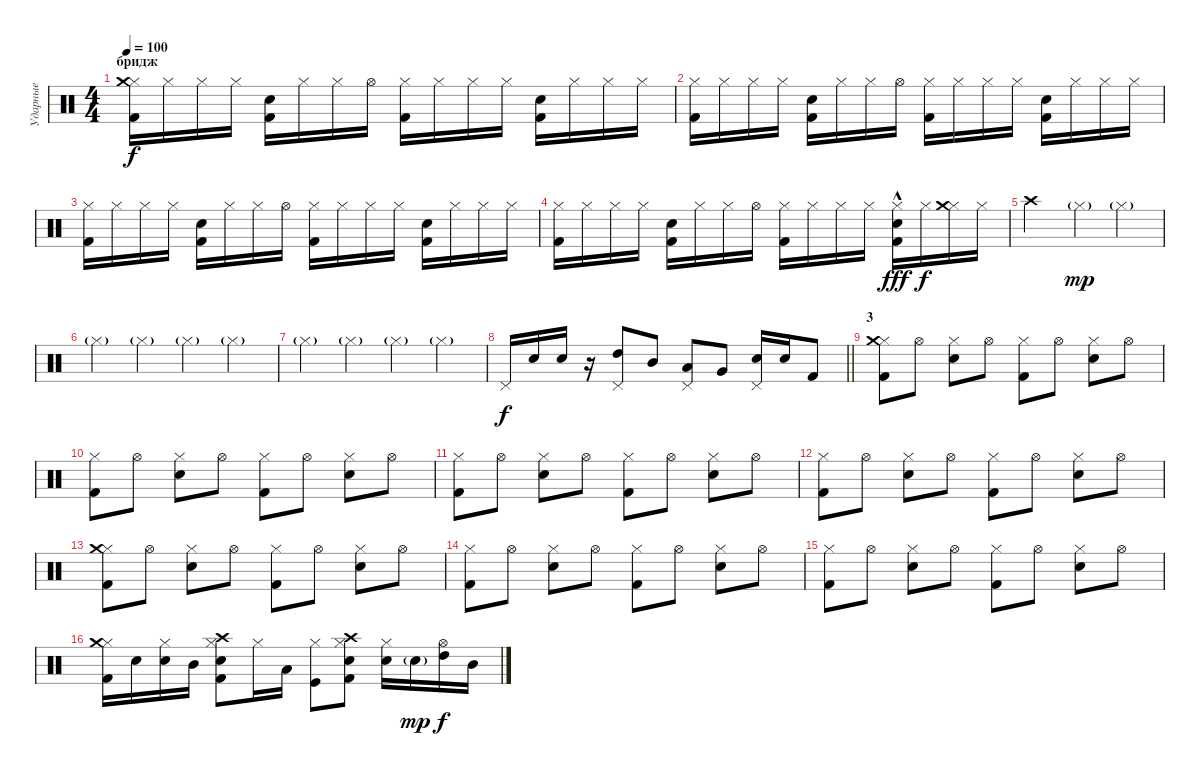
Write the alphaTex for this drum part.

\track ("Ударные" "Ударные") {instrument percussion}
\staff {score}
\articulation defaults
\ts (4 4)
\section ("" "бридж")
\tempo 100
\clef neutral
\ks c
("Kick (hit) 2" "Hi-Hat (closed)" "Crash medium (hit)").16{dy f} "Hi-Hat (closed)".16 "Hi-Hat (closed)".16 "Hi-Hat (closed)".16 ("Kick (hit) 2" "Snare (hit) 2").16 "Hi-Hat (closed)".16 "Hi-Hat (closed)".16 "Hi-Hat (open)".16 ("Kick (hit) 2" "Hi-Hat (closed)").16 "Hi-Hat (closed)".16 "Hi-Hat (closed)".16 "Hi-Hat (closed)".16 ("Kick (hit) 2" "Snare (hit) 2").16 "Hi-Hat (closed)".16 "Hi-Hat (closed)".16 "Hi-Hat (closed)".16 |
("Kick (hit) 2" "Hi-Hat (closed)").16 "Hi-Hat (closed)".16 "Hi-Hat (closed)".16 "Hi-Hat (closed)".16 ("Kick (hit) 2" "Snare (hit) 2").16 "Hi-Hat (closed)".16 "Hi-Hat (closed)".16 "Hi-Hat (open)".16 ("Kick (hit) 2" "Hi-Hat (closed)").16 "Hi-Hat (closed)".16 "Hi-Hat (closed)".16 "Hi-Hat (closed)".16 ("Kick (hit) 2" "Snare (hit) 2").16 "Hi-Hat (closed)".16 "Hi-Hat (closed)".16 "Hi-Hat (closed)".16 |
("Kick (hit) 2" "Hi-Hat (closed)").16 "Hi-Hat (closed)".16 "Hi-Hat (closed)".16 "Hi-Hat (closed)".16 ("Kick (hit) 2" "Snare (hit) 2").16 "Hi-Hat (closed)".16 "Hi-Hat (closed)".16 "Hi-Hat (open)".16 ("Kick (hit) 2" "Hi-Hat (closed)").16 "Hi-Hat (closed)".16 "Hi-Hat (closed)".16 "Hi-Hat (closed)".16 ("Kick (hit) 2" "Snare (hit) 2").16 "Hi-Hat (closed)".16 "Hi-Hat (closed)".16 "Hi-Hat (closed)".16 |
("Kick (hit) 2" "Hi-Hat (closed)").16 "Hi-Hat (closed)".16 "Hi-Hat (closed)".16 "Hi-Hat (closed)".16 ("Kick (hit) 2" "Snare (hit) 2").16 "Hi-Hat (closed)".16 "Hi-Hat (closed)".16 "Hi-Hat (open)".16 ("Kick (hit) 2" "Hi-Hat (closed)").16 "Hi-Hat (closed)".16 "Hi-Hat (closed)".16 "Hi-Hat (closed)".16 ("Kick (hit) 2" "Snare (hit) 2" "Hi-Hat (closed)"{hac}).16{dy fff} "Hi-Hat (closed)".16{dy f} ("Hi-Hat (closed)" "Crash medium (hit)").16 "Hi-Hat (closed)".16 |
"Crash high (hit)".2 "Hi-Hat (closed)"{g}.4{dy mp} "Hi-Hat (closed)"{g}.4 |
"Hi-Hat (closed)"{g}.4 "Hi-Hat (closed)"{g}.4 "Hi-Hat (closed)"{g}.4 "Hi-Hat (closed)"{g}.4 |
"Hi-Hat (closed)"{g}.4 "Hi-Hat (closed)"{g}.4 "Hi-Hat (closed)"{g}.4 "Hi-Hat (closed)"{g}.4 |
\barLineRight lightlight "Pedal Hi-Hat (hit)".16{dy f} "Snare (hit) 2".16 "Snare (hit) 2".16
r.16 ("Pedal Hi-Hat (hit)" "High Tom (hit)").8 "Mid Tom (hit)".8 ("Pedal Hi-Hat (hit)" "Low Tom (hit)").8 "Very Low Tom (hit)".8 ("Snare (hit) 2" "Pedal Hi-Hat (hit)").16 "Snare (hit) 2".16 "Kick (hit) 2".8 |
\section ("" "3")
("Kick (hit) 2" "Hi-Hat (closed)" "Crash medium (hit)").8 "Hi-Hat (open)".8 ("Snare (hit) 2" "Hi-Hat (closed)").8 "Hi-Hat (open)".8 ("Kick (hit) 2" "Hi-Hat (closed)").8 "Hi-Hat (open)".8 ("Snare (hit) 2" "Hi-Hat (closed)").8 "Hi-Hat (open)".8 |
("Kick (hit) 2" "Hi-Hat (closed)").8 "Hi-Hat (open)".8 ("Snare (hit) 2" "Hi-Hat (closed)").8 "Hi-Hat (open)".8 ("Kick (hit) 2" "Hi-Hat (closed)").8 "Hi-Hat (open)".8 ("Snare (hit) 2" "Hi-Hat (closed)").8 "Hi-Hat (open)".8 |
("Kick (hit) 2" "Hi-Hat (closed)").8 "Hi-Hat (open)".8 ("Snare (hit) 2" "Hi-Hat (closed)").8 "Hi-Hat (open)".8 ("Kick (hit) 2" "Hi-Hat (closed)").8 "Hi-Hat (open)".8 ("Snare (hit) 2" "Hi-Hat (closed)").8 "Hi-Hat (open)".8 |
("Kick (hit) 2" "Hi-Hat (closed)").8 "Hi-Hat (open)".8 ("Snare (hit) 2" "Hi-Hat (closed)").8 "Hi-Hat (open)".8 ("Kick (hit) 2" "Hi-Hat (closed)").8 "Hi-Hat (open)".8 ("Snare (hit) 2" "Hi-Hat (closed)").8 "Hi-Hat (open)".8 |
("Kick (hit) 2" "Hi-Hat (closed)" "Crash medium (hit)").8 "Hi-Hat (open)".8 ("Snare (hit) 2" "Hi-Hat (closed)").8 "Hi-Hat (open)".8 ("Kick (hit) 2" "Hi-Hat (closed)").8 "Hi-Hat (open)".8 ("Snare (hit) 2" "Hi-Hat (closed)").8 "Hi-Hat (open)".8 |
("Kick (hit) 2" "Hi-Hat (closed)").8 "Hi-Hat (open)".8 ("Snare (hit) 2" "Hi-Hat (closed)").8 "Hi-Hat (open)".8 ("Kick (hit) 2" "Hi-Hat (closed)").8 "Hi-Hat (open)".8 ("Snare (hit) 2" "Hi-Hat (closed)").8 "Hi-Hat (open)".8 |
("Kick (hit) 2" "Hi-Hat (closed)").8 "Hi-Hat (open)".8 ("Snare (hit) 2" "Hi-Hat (closed)").8 "Hi-Hat (open)".8 ("Kick (hit) 2" "Hi-Hat (closed)").8 "Hi-Hat (open)".8 ("Snare (hit) 2" "Hi-Hat (closed)").8 "Hi-Hat (open)".8 |
("Kick (hit) 2" "Hi-Hat (closed)" "Crash medium (hit)").16 "Snare (hit) 2".16 ("Snare (hit) 2" "Hi-Hat (closed)").16 "Mid Tom (hit)".16 ("Kick (hit) 2" "Snare (hit) 2" "Hi-Hat (closed)" "Crash high (hit)").8 "Hi-Hat (closed)".16 "Low Tom (hit)".16 ("Kick (hit)" "Hi-Hat (closed)").8 ("Kick (hit) 2" "Snare (hit) 2" "Hi-Hat (closed)" "Crash high (hit)").8 ("Snare (hit) 2" "Hi-Hat (closed)").16 "Snare (hit) 2"{g}.16{dy mp} ("Hi-Hat (open)" "High Tom (hit)").16{dy f} "Mid Tom (hit)".16
